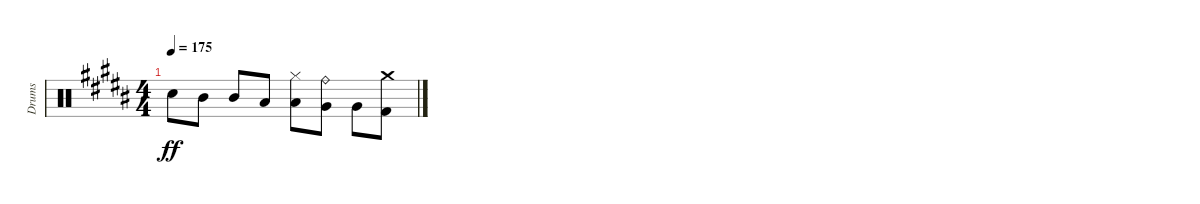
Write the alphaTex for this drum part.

\defaultSystemsLayout 4
\bracketExtendMode groupsimilarinstruments
\otherSystemsTrackNameOrientation horizontal
\track ("Drumkit" "Drums") {instrument percussion}
\staff {score}
\articulation defaults
\ts (4 4)
\tempo 175
\clef neutral
\ks b "Snare (hit) 2"{acc forcenatural}.8{dy ff} "Mid Tom (hit)"{acc forcenatural}.8 "Mid Tom (hit)"{acc forcenatural}.8 "Low Tom (hit)"{acc forcenatural}.8
("Low Tom (hit)"{acc forcenatural} "Hi-Hat (closed)"{acc forcenatural}).8 ("Very Low Tom (hit)"{acc forcenatural} "Ride (bell)"{acc forcenatural}).8 "Very Low Tom (hit)"{acc forcenatural}.8 ("Kick (hit) 2"{acc forcenatural} "Crash medium (hit)"{acc forcenatural}).8
